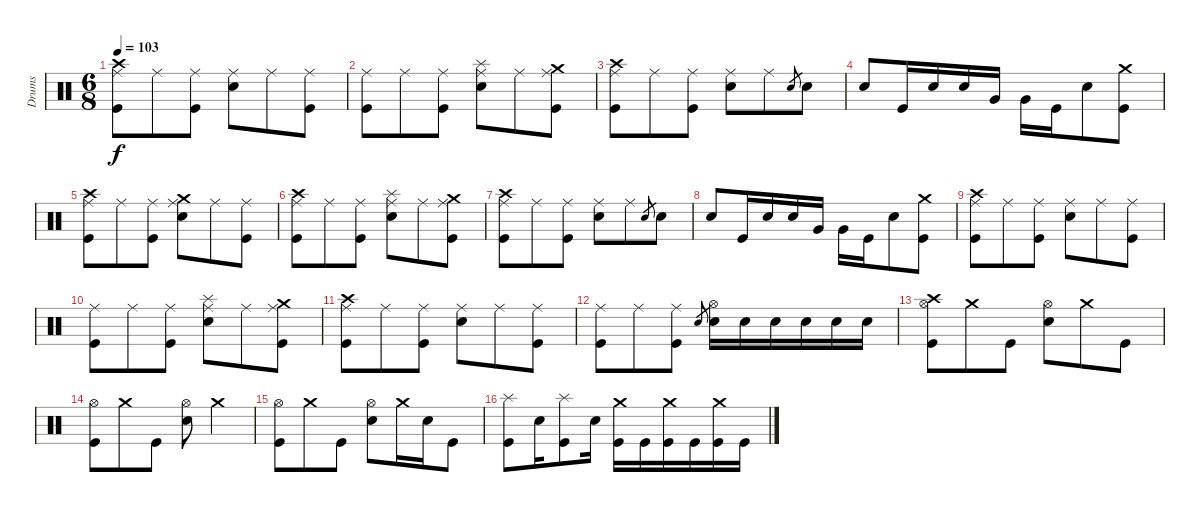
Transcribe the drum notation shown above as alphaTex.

\track ("Drums" "Drums") {instrument percussion}
\staff {score}
\articulation defaults
\ts (6 8)
\tempo 103
\clef neutral
\ks c
("Crash high (hit)" "Ride (middle)" "Kick (hit)").8{dy f} "Ride (middle)".8 ("Ride (middle)" "Kick (hit)").8 ("Ride (middle)" "Electric Snare (hit)").8 "Ride (middle)".8 ("Ride (middle)" "Kick (hit)").8 |
("Ride (middle)" "Kick (hit)").8 "Ride (middle)".8 ("Ride (middle)" "Kick (hit)").8 ("Splash (hit)" "Ride (middle)" "Electric Snare (hit)").8 "Ride (middle)".8 ("Crash medium (hit)" "Ride (middle)" "Kick (hit)").8 |
("Crash high (hit)" "Ride (middle)" "Kick (hit)").8 "Ride (middle)".8 ("Ride (middle)" "Kick (hit)").8 ("Ride (middle)" "Electric Snare (hit)").8 "Ride (middle)".8 "Electric Snare (hit)".8{gr} "Electric Snare (hit)".8 |
"Electric Snare (hit)".8 "Kick (hit)".16 "Electric Snare (hit)".16 "Electric Snare (hit)".16 "Very Low Tom (hit)".16 "Very Low Tom (hit)".16 "Kick (hit)".16 "Electric Snare (hit)".8 ("Crash medium (hit)" "Kick (hit)").8 |
("Crash high (hit)" "Ride (middle)" "Kick (hit)").8 "Ride (middle)".8 ("Ride (middle)" "Kick (hit)").8 ("Crash medium (hit)" "Ride (middle)" "Electric Snare (hit)").8 "Ride (middle)".8 ("Ride (middle)" "Kick (hit)").8 |
("Crash high (hit)" "Ride (middle)" "Kick (hit)").8 "Ride (middle)".8 ("Ride (middle)" "Kick (hit)").8 ("Splash (hit)" "Ride (middle)" "Electric Snare (hit)").8 "Ride (middle)".8 ("Crash medium (hit)" "Ride (middle)" "Kick (hit)").8 |
("Crash high (hit)" "Ride (middle)" "Kick (hit)").8 "Ride (middle)".8 ("Ride (middle)" "Kick (hit)").8 ("Ride (middle)" "Electric Snare (hit)").8 "Ride (middle)".8 "Electric Snare (hit)".8{gr} "Electric Snare (hit)".8 |
"Electric Snare (hit)".8 "Kick (hit)".16 "Electric Snare (hit)".16 "Electric Snare (hit)".16 "Very Low Tom (hit)".16 "Very Low Tom (hit)".16 "Kick (hit)".16 "Electric Snare (hit)".8 ("Crash medium (hit)" "Kick (hit)").8 |
("Crash high (hit)" "Ride (middle)" "Kick (hit)").8 "Ride (middle)".8 ("Ride (middle)" "Kick (hit)").8 ("Ride (middle)" "Electric Snare (hit)").8 "Ride (middle)".8 ("Ride (middle)" "Kick (hit)").8 |
("Ride (middle)" "Kick (hit)").8 "Ride (middle)".8 ("Ride (middle)" "Kick (hit)").8 ("Splash (hit)" "Ride (middle)" "Electric Snare (hit)").8 "Ride (middle)".8 ("Crash medium (hit)" "Ride (middle)" "Kick (hit)").8 |
("Crash high (hit)" "Ride (middle)" "Kick (hit)").8 "Ride (middle)".8 ("Ride (middle)" "Kick (hit)").8 ("Ride (middle)" "Electric Snare (hit)").8 "Ride (middle)".8 ("Ride (middle)" "Kick (hit)").8 |
("Ride (middle)" "Kick (hit)").8 "Ride (middle)".8 ("Ride (middle)" "Kick (hit)").8 "Electric Snare (hit)".8{gr} ("Hi-Hat (open)" "Electric Snare (hit)").16 "Electric Snare (hit)".16 "Electric Snare (hit)".16 "Electric Snare (hit)".16 "Electric Snare (hit)".16 "Electric Snare (hit)".16 |
("Crash high (hit)" "Hi-Hat (open)" "Kick (hit)").8 "Crash medium (hit)".8 "Kick (hit)".8 ("Hi-Hat (open)" "Electric Snare (hit)").8 "Crash medium (hit)".8 "Kick (hit)".8 |
("Hi-Hat (open)" "Kick (hit)").8 "Crash medium (hit)".8 "Kick (hit)".8 ("Hi-Hat (open)" "Electric Snare (hit)").8 "Crash medium (hit)".4 |
("Hi-Hat (open)" "Kick (hit)").8 "Crash medium (hit)".8 "Kick (hit)".8 ("Hi-Hat (open)" "Electric Snare (hit)").8 "Crash medium (hit)".16 "Electric Snare (hit)".16 "Kick (hit)".8 |
("Splash (hit)" "Kick (hit)").8 "Electric Snare (hit)".16 ("Splash (hit)" "Kick (hit)").8 "Electric Snare (hit)".16 ("Crash medium (hit)" "Kick (hit)").16 "Kick (hit)".16 ("Crash medium (hit)" "Kick (hit)").16 "Kick (hit)".16 ("Crash medium (hit)" "Kick (hit)").16 "Kick (hit)".16
